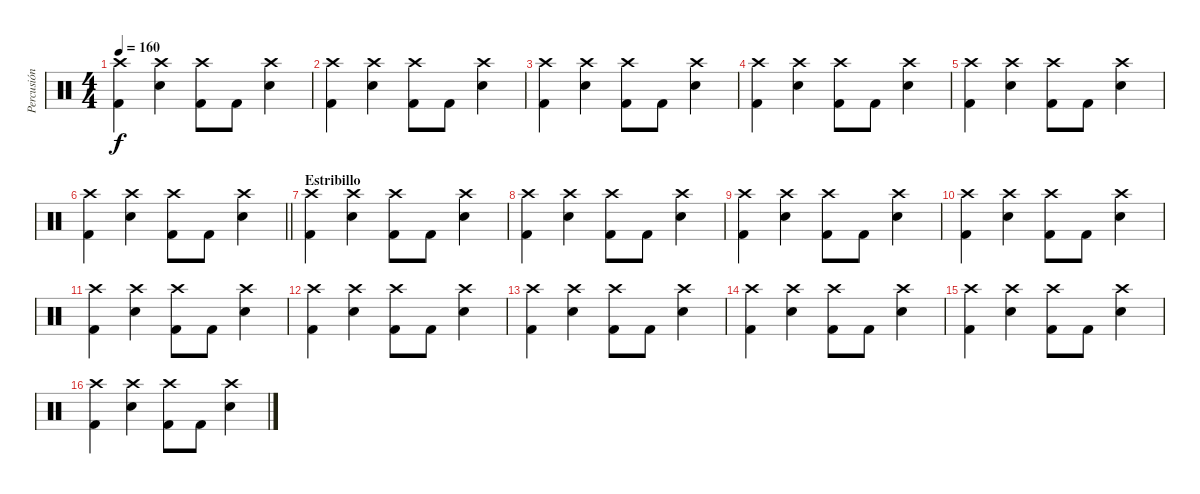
\track ("Percusión" "Percusión") {instrument percussion}
\staff {score}
\articulation defaults
\ts (4 4)
\tempo 160
\clef neutral
\ks c
("Crash high (hit)" "Kick (hit) 2").4{dy f} ("Crash high (hit)" "Electric Snare (hit)").4 ("Crash high (hit)" "Kick (hit) 2").8 "Kick (hit) 2".8 ("Crash high (hit)" "Electric Snare (hit)").4 |
("Crash high (hit)" "Kick (hit) 2").4 ("Crash high (hit)" "Electric Snare (hit)").4 ("Crash high (hit)" "Kick (hit) 2").8 "Kick (hit) 2".8 ("Crash high (hit)" "Electric Snare (hit)").4 |
("Crash high (hit)" "Kick (hit) 2").4 ("Crash high (hit)" "Electric Snare (hit)").4 ("Crash high (hit)" "Kick (hit) 2").8 "Kick (hit) 2".8 ("Crash high (hit)" "Electric Snare (hit)").4 |
("Crash high (hit)" "Kick (hit) 2").4 ("Crash high (hit)" "Electric Snare (hit)").4 ("Crash high (hit)" "Kick (hit) 2").8 "Kick (hit) 2".8 ("Crash high (hit)" "Electric Snare (hit)").4 |
("Crash high (hit)" "Kick (hit) 2").4 ("Crash high (hit)" "Electric Snare (hit)").4 ("Crash high (hit)" "Kick (hit) 2").8 "Kick (hit) 2".8 ("Crash high (hit)" "Electric Snare (hit)").4 |
\barLineRight lightlight
("Crash high (hit)" "Kick (hit) 2").4 ("Crash high (hit)" "Electric Snare (hit)").4 ("Crash high (hit)" "Kick (hit) 2").8 "Kick (hit) 2".8 ("Crash high (hit)" "Electric Snare (hit)").4 |
\section ("" "Estribillo")
("Crash high (hit)" "Kick (hit) 2").4 ("Crash high (hit)" "Electric Snare (hit)").4 ("Crash high (hit)" "Kick (hit) 2").8 "Kick (hit) 2".8 ("Crash high (hit)" "Electric Snare (hit)").4 |
("Crash high (hit)" "Kick (hit) 2").4 ("Crash high (hit)" "Electric Snare (hit)").4 ("Crash high (hit)" "Kick (hit) 2").8 "Kick (hit) 2".8 ("Crash high (hit)" "Electric Snare (hit)").4 |
("Crash high (hit)" "Kick (hit) 2").4 ("Crash high (hit)" "Electric Snare (hit)").4 ("Crash high (hit)" "Kick (hit) 2").8 "Kick (hit) 2".8 ("Crash high (hit)" "Electric Snare (hit)").4 |
("Crash high (hit)" "Kick (hit) 2").4 ("Crash high (hit)" "Electric Snare (hit)").4 ("Crash high (hit)" "Kick (hit) 2").8 "Kick (hit) 2".8 ("Crash high (hit)" "Electric Snare (hit)").4 |
("Crash high (hit)" "Kick (hit) 2").4 ("Crash high (hit)" "Electric Snare (hit)").4 ("Crash high (hit)" "Kick (hit) 2").8 "Kick (hit) 2".8 ("Crash high (hit)" "Electric Snare (hit)").4 |
("Crash high (hit)" "Kick (hit) 2").4 ("Crash high (hit)" "Electric Snare (hit)").4 ("Crash high (hit)" "Kick (hit) 2").8 "Kick (hit) 2".8 ("Crash high (hit)" "Electric Snare (hit)").4 |
("Crash high (hit)" "Kick (hit) 2").4 ("Crash high (hit)" "Electric Snare (hit)").4 ("Crash high (hit)" "Kick (hit) 2").8 "Kick (hit) 2".8 ("Crash high (hit)" "Electric Snare (hit)").4 |
("Crash high (hit)" "Kick (hit) 2").4 ("Crash high (hit)" "Electric Snare (hit)").4 ("Crash high (hit)" "Kick (hit) 2").8 "Kick (hit) 2".8 ("Crash high (hit)" "Electric Snare (hit)").4 |
("Crash high (hit)" "Kick (hit) 2").4 ("Crash high (hit)" "Electric Snare (hit)").4 ("Crash high (hit)" "Kick (hit) 2").8 "Kick (hit) 2".8 ("Crash high (hit)" "Electric Snare (hit)").4 |
("Crash high (hit)" "Kick (hit) 2").4 ("Crash high (hit)" "Electric Snare (hit)").4 ("Crash high (hit)" "Kick (hit) 2").8 "Kick (hit) 2".8 ("Crash high (hit)" "Electric Snare (hit)").4
